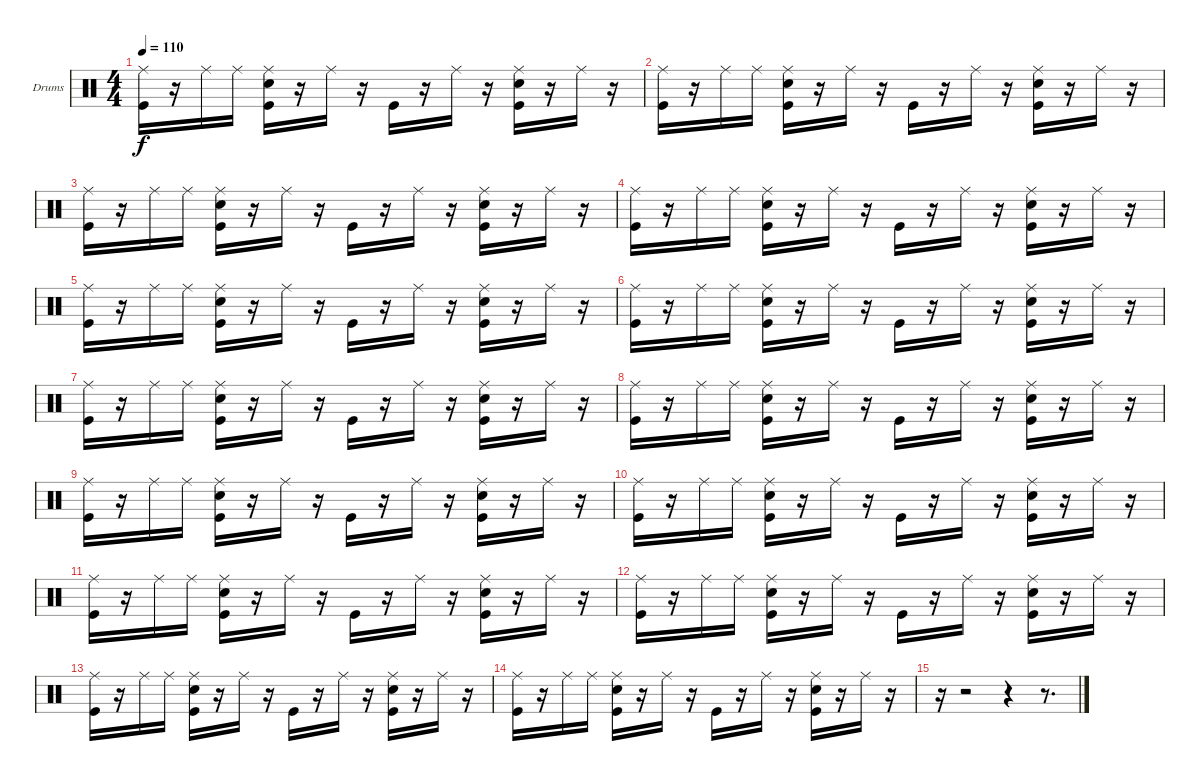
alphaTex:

\bracketExtendMode groupsimilarinstruments
\firstSystemTrackNameOrientation horizontal
\otherSystemsTrackNameOrientation horizontal
\track ("Drumkit" "Drums") {instrument percussion}
\staff {score}
\articulation defaults
\ts (4 4)
\tempo 110
\clef neutral
\ks c
("Kick (hit)" "Ride (middle)").16{dy f} r.16 "Ride (middle)".16 "Ride (middle)".16 ("Snare (hit) 2" "Ride (middle)" "Kick (hit)").16 r.16 "Ride (middle)".16 r.16 "Kick (hit)".16 r.16 "Ride (middle)".16 r.16 ("Snare (hit) 2" "Ride (middle)" "Kick (hit)").16 r.16 "Ride (middle)".16 r.16 |
("Kick (hit)" "Ride (middle)").16 r.16 "Ride (middle)".16 "Ride (middle)".16 ("Snare (hit) 2" "Ride (middle)" "Kick (hit)").16 r.16 "Ride (middle)".16 r.16 "Kick (hit)".16 r.16 "Ride (middle)".16 r.16 ("Snare (hit) 2" "Ride (middle)" "Kick (hit)").16 r.16 "Ride (middle)".16 r.16 |
("Kick (hit)" "Ride (middle)").16 r.16 "Ride (middle)".16 "Ride (middle)".16 ("Snare (hit) 2" "Ride (middle)" "Kick (hit)").16 r.16 "Ride (middle)".16 r.16 "Kick (hit)".16 r.16 "Ride (middle)".16 r.16 ("Snare (hit) 2" "Ride (middle)" "Kick (hit)").16 r.16 "Ride (middle)".16 r.16 |
("Kick (hit)" "Ride (middle)").16 r.16 "Ride (middle)".16 "Ride (middle)".16 ("Snare (hit) 2" "Ride (middle)" "Kick (hit)").16 r.16 "Ride (middle)".16 r.16 "Kick (hit)".16 r.16 "Ride (middle)".16 r.16 ("Snare (hit) 2" "Ride (middle)" "Kick (hit)").16 r.16 "Ride (middle)".16 r.16 |
("Kick (hit)" "Ride (middle)").16 r.16 "Ride (middle)".16 "Ride (middle)".16 ("Snare (hit) 2" "Ride (middle)" "Kick (hit)").16 r.16 "Ride (middle)".16 r.16 "Kick (hit)".16 r.16 "Ride (middle)".16 r.16 ("Snare (hit) 2" "Ride (middle)" "Kick (hit)").16 r.16 "Ride (middle)".16 r.16 |
("Kick (hit)" "Ride (middle)").16 r.16 "Ride (middle)".16 "Ride (middle)".16 ("Snare (hit) 2" "Ride (middle)" "Kick (hit)").16 r.16 "Ride (middle)".16 r.16 "Kick (hit)".16 r.16 "Ride (middle)".16 r.16 ("Snare (hit) 2" "Ride (middle)" "Kick (hit)").16 r.16 "Ride (middle)".16 r.16 |
("Kick (hit)" "Ride (middle)").16 r.16 "Ride (middle)".16 "Ride (middle)".16 ("Snare (hit) 2" "Ride (middle)" "Kick (hit)").16 r.16 "Ride (middle)".16 r.16 "Kick (hit)".16 r.16 "Ride (middle)".16 r.16 ("Snare (hit) 2" "Ride (middle)" "Kick (hit)").16 r.16 "Ride (middle)".16 r.16 |
("Kick (hit)" "Ride (middle)").16 r.16 "Ride (middle)".16 "Ride (middle)".16 ("Snare (hit) 2" "Ride (middle)" "Kick (hit)").16 r.16 "Ride (middle)".16 r.16 "Kick (hit)".16 r.16 "Ride (middle)".16 r.16 ("Snare (hit) 2" "Ride (middle)" "Kick (hit)").16 r.16 "Ride (middle)".16 r.16 |
("Kick (hit)" "Ride (middle)").16 r.16 "Ride (middle)".16 "Ride (middle)".16 ("Snare (hit) 2" "Ride (middle)" "Kick (hit)").16 r.16 "Ride (middle)".16 r.16 "Kick (hit)".16 r.16 "Ride (middle)".16 r.16 ("Snare (hit) 2" "Ride (middle)" "Kick (hit)").16 r.16 "Ride (middle)".16 r.16 |
("Kick (hit)" "Ride (middle)").16 r.16 "Ride (middle)".16 "Ride (middle)".16 ("Snare (hit) 2" "Ride (middle)" "Kick (hit)").16 r.16 "Ride (middle)".16 r.16 "Kick (hit)".16 r.16 "Ride (middle)".16 r.16 ("Snare (hit) 2" "Ride (middle)" "Kick (hit)").16 r.16 "Ride (middle)".16 r.16 |
("Kick (hit)" "Ride (middle)").16 r.16 "Ride (middle)".16 "Ride (middle)".16 ("Snare (hit) 2" "Ride (middle)" "Kick (hit)").16 r.16 "Ride (middle)".16 r.16 "Kick (hit)".16 r.16 "Ride (middle)".16 r.16 ("Snare (hit) 2" "Ride (middle)" "Kick (hit)").16 r.16 "Ride (middle)".16 r.16 |
("Kick (hit)" "Ride (middle)").16 r.16 "Ride (middle)".16 "Ride (middle)".16 ("Snare (hit) 2" "Ride (middle)" "Kick (hit)").16 r.16 "Ride (middle)".16 r.16 "Kick (hit)".16 r.16 "Ride (middle)".16 r.16 ("Snare (hit) 2" "Ride (middle)" "Kick (hit)").16 r.16 "Ride (middle)".16 r.16 |
("Kick (hit)" "Ride (middle)").16 r.16 "Ride (middle)".16 "Ride (middle)".16 ("Snare (hit) 2" "Ride (middle)" "Kick (hit)").16 r.16 "Ride (middle)".16 r.16 "Kick (hit)".16 r.16 "Ride (middle)".16 r.16 ("Snare (hit) 2" "Ride (middle)" "Kick (hit)").16 r.16 "Ride (middle)".16 r.16 |
("Kick (hit)" "Ride (middle)").16 r.16 "Ride (middle)".16 "Ride (middle)".16 ("Snare (hit) 2" "Ride (middle)" "Kick (hit)").16 r.16 "Ride (middle)".16 r.16 "Kick (hit)".16 r.16 "Ride (middle)".16 r.16 ("Snare (hit) 2" "Ride (middle)" "Kick (hit)").16 r.16 "Ride (middle)".16 r.16 |
r.16 r.2 r.4 r.8{d}
